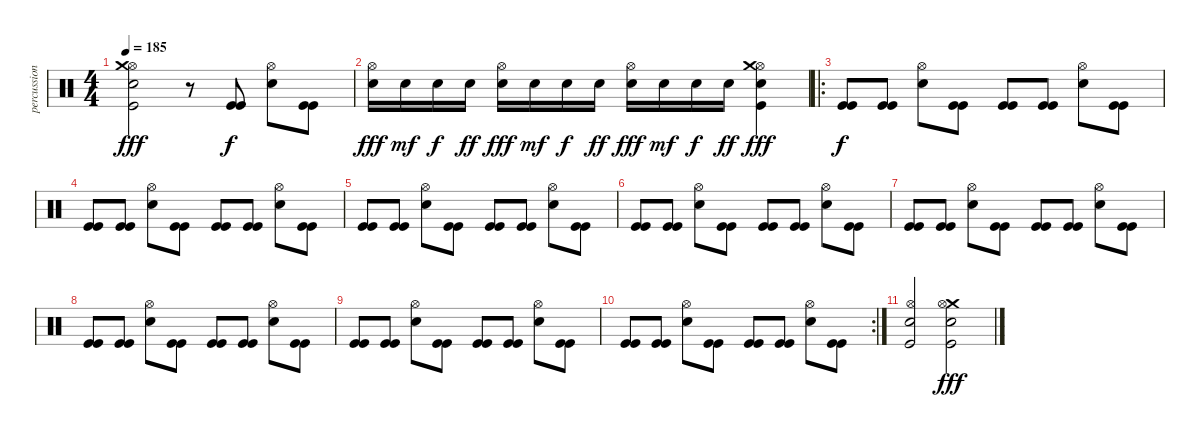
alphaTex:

\track ("percussions" "percussion") {instrument percussion}
\staff {score}
\articulation defaults
\ts (4 4)
\tempo 185
\clef neutral
\ks c
("Snare (hit) 2" "Hi-Hat (open)" "Kick (hit)" "Crash medium (hit)").2{dy fff} r.8 ("Kick (hit)" "Kick (hit)").8{dy f} ("Snare (hit) 2" "Hi-Hat (open)").8 ("Kick (hit)" "Kick (hit)").8 |
("Snare (hit) 2" "Hi-Hat (open)").16{dy fff} "Snare (hit) 2".16{dy mf} "Snare (hit) 2".16{dy f} "Snare (hit) 2".16{dy ff} ("Snare (hit) 2" "Hi-Hat (open)").16{dy fff} "Snare (hit) 2".16{dy mf} "Snare (hit) 2".16{dy f} "Snare (hit) 2".16{dy ff} ("Snare (hit) 2" "Hi-Hat (open)").16{dy fff} "Snare (hit) 2".16{dy mf} "Snare (hit) 2".16{dy f} "Snare (hit) 2".16{dy ff} ("Snare (hit) 2" "Kick (hit)" "Hi-Hat (open)" "Crash medium (hit)").4{dy fff} |
\ro
("Kick (hit)" "Kick (hit)").8{dy f} ("Kick (hit)" "Kick (hit)").8 ("Snare (hit) 2" "Hi-Hat (open)").8 ("Kick (hit)" "Kick (hit)").8 ("Kick (hit)" "Kick (hit)").8 ("Kick (hit)" "Kick (hit)").8 ("Snare (hit) 2" "Hi-Hat (open)").8 ("Kick (hit)" "Kick (hit)").8 |
("Kick (hit)" "Kick (hit)").8 ("Kick (hit)" "Kick (hit)").8 ("Snare (hit) 2" "Hi-Hat (open)").8 ("Kick (hit)" "Kick (hit)").8 ("Kick (hit)" "Kick (hit)").8 ("Kick (hit)" "Kick (hit)").8 ("Snare (hit) 2" "Hi-Hat (open)").8 ("Kick (hit)" "Kick (hit)").8 |
("Kick (hit)" "Kick (hit)").8 ("Kick (hit)" "Kick (hit)").8 ("Snare (hit) 2" "Hi-Hat (open)").8 ("Kick (hit)" "Kick (hit)").8 ("Kick (hit)" "Kick (hit)").8 ("Kick (hit)" "Kick (hit)").8 ("Snare (hit) 2" "Hi-Hat (open)").8 ("Kick (hit)" "Kick (hit)").8 |
("Kick (hit)" "Kick (hit)").8 ("Kick (hit)" "Kick (hit)").8 ("Snare (hit) 2" "Hi-Hat (open)").8 ("Kick (hit)" "Kick (hit)").8 ("Kick (hit)" "Kick (hit)").8 ("Kick (hit)" "Kick (hit)").8 ("Snare (hit) 2" "Hi-Hat (open)").8 ("Kick (hit)" "Kick (hit)").8 |
("Kick (hit)" "Kick (hit)").8 ("Kick (hit)" "Kick (hit)").8 ("Snare (hit) 2" "Hi-Hat (open)").8 ("Kick (hit)" "Kick (hit)").8 ("Kick (hit)" "Kick (hit)").8 ("Kick (hit)" "Kick (hit)").8 ("Snare (hit) 2" "Hi-Hat (open)").8 ("Kick (hit)" "Kick (hit)").8 |
("Kick (hit)" "Kick (hit)").8 ("Kick (hit)" "Kick (hit)").8 ("Snare (hit) 2" "Hi-Hat (open)").8 ("Kick (hit)" "Kick (hit)").8 ("Kick (hit)" "Kick (hit)").8 ("Kick (hit)" "Kick (hit)").8 ("Snare (hit) 2" "Hi-Hat (open)").8 ("Kick (hit)" "Kick (hit)").8 |
("Kick (hit)" "Kick (hit)").8 ("Kick (hit)" "Kick (hit)").8 ("Snare (hit) 2" "Hi-Hat (open)").8 ("Kick (hit)" "Kick (hit)").8 ("Kick (hit)" "Kick (hit)").8 ("Kick (hit)" "Kick (hit)").8 ("Snare (hit) 2" "Hi-Hat (open)").8 ("Kick (hit)" "Kick (hit)").8 |
\rc 2
("Kick (hit)" "Kick (hit)").8 ("Kick (hit)" "Kick (hit)").8 ("Snare (hit) 2" "Hi-Hat (open)").8 ("Kick (hit)" "Kick (hit)").8 ("Kick (hit)" "Kick (hit)").8 ("Kick (hit)" "Kick (hit)").8 ("Snare (hit) 2" "Hi-Hat (open)").8 ("Kick (hit)" "Kick (hit)").8 |
("Snare (hit) 2" "Kick (hit)" "Hi-Hat (open)").2 ("Snare (hit) 2" "Crash medium (hit)" "Kick (hit)" "Hi-Hat (open)").2{dy fff}
